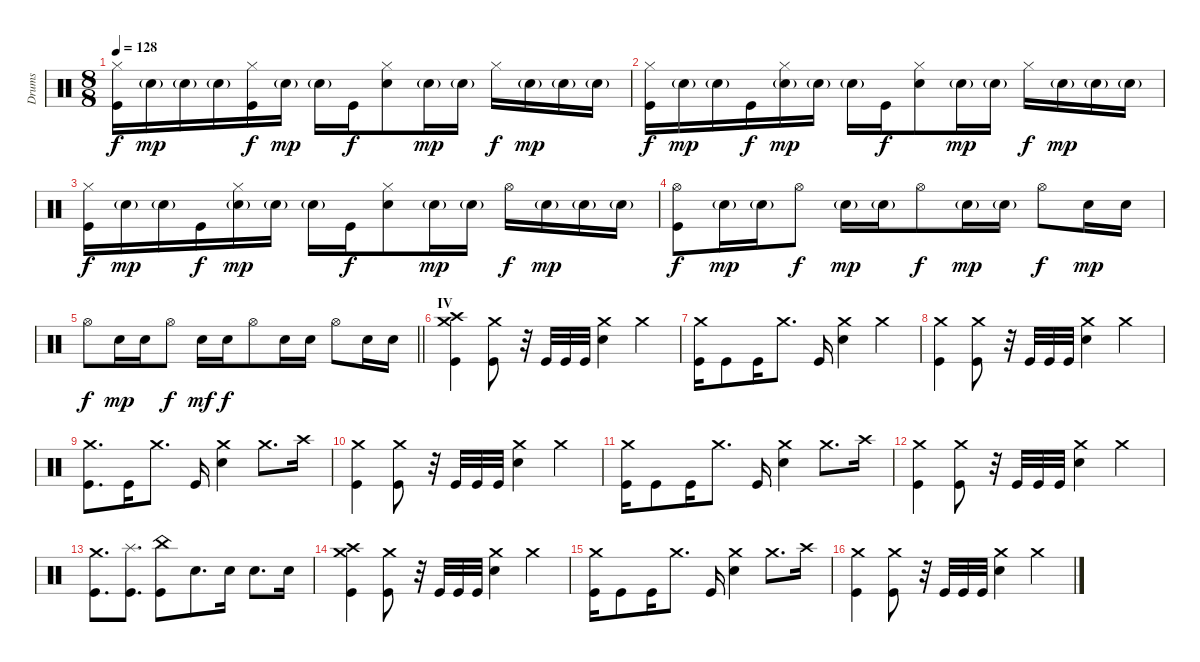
\track ("Drums" "Drums") {instrument percussion}
\staff {score}
\articulation defaults
\ts (8 8)
\tempo 128
\clef neutral
\ks c
("Kick (hit)" "Hi-Hat (closed)").16{dy f} "Electric Snare (hit)"{g}.16{dy mp} "Electric Snare (hit)"{g}.16 "Electric Snare (hit)"{g}.16 ("Kick (hit)" "Hi-Hat (closed)").16{dy f} "Electric Snare (hit)"{g}.16{dy mp} "Electric Snare (hit)"{g}.16 "Kick (hit)".16{dy f} ("Electric Snare (hit)" "Hi-Hat (closed)").8 "Electric Snare (hit)"{g}.16{dy mp} "Electric Snare (hit)"{g}.16 "Hi-Hat (closed)".16{dy f} "Electric Snare (hit)"{g}.16{dy mp} "Electric Snare (hit)"{g}.16 "Electric Snare (hit)"{g}.16 |
("Kick (hit)" "Hi-Hat (closed)").16{dy f} "Electric Snare (hit)"{g}.16{dy mp} "Electric Snare (hit)"{g}.16 "Kick (hit)".16{dy f} ("Electric Snare (hit)"{g} "Hi-Hat (closed)").16{dy mp} "Electric Snare (hit)"{g}.16 "Electric Snare (hit)"{g}.16 "Kick (hit)".16{dy f} ("Electric Snare (hit)" "Hi-Hat (closed)").8 "Electric Snare (hit)"{g}.16{dy mp} "Electric Snare (hit)"{g}.16 "Hi-Hat (closed)".16{dy f} "Electric Snare (hit)"{g}.16{dy mp} "Electric Snare (hit)"{g}.16 "Electric Snare (hit)"{g}.16 |
("Kick (hit)" "Hi-Hat (closed)").16{dy f} "Electric Snare (hit)"{g}.16{dy mp} "Electric Snare (hit)"{g}.16 "Kick (hit)".16{dy f} ("Electric Snare (hit)"{g} "Hi-Hat (closed)").16{dy mp} "Electric Snare (hit)"{g}.16 "Electric Snare (hit)"{g}.16 "Kick (hit)".16{dy f} ("Electric Snare (hit)" "Hi-Hat (closed)").8 "Electric Snare (hit)"{g}.16{dy mp} "Electric Snare (hit)"{g}.16 "Hi-Hat (open)".16{dy f} "Electric Snare (hit)"{g}.16{dy mp} "Electric Snare (hit)"{g}.16 "Electric Snare (hit)"{g}.16 |
("Kick (hit)" "Hi-Hat (open)").8{dy f} "Electric Snare (hit)"{g}.16{dy mp} "Electric Snare (hit)"{g}.16 "Hi-Hat (open)".8{dy f} "Electric Snare (hit)"{g}.16{dy mp} "Electric Snare (hit)"{g}.16 "Hi-Hat (open)".8{dy f} "Electric Snare (hit)"{g}.16{dy mp} "Electric Snare (hit)"{g}.16 "Hi-Hat (open)".8{dy f} "Electric Snare (hit)".16{dy mp} "Electric Snare (hit)".16 |
\barLineRight lightlight "Hi-Hat (open)".8{dy f} "Electric Snare (hit)".16{dy mp} "Electric Snare (hit)".16 "Hi-Hat (open)".8{dy f} "Electric Snare (hit)".16{dy mf} "Electric Snare (hit)".16{dy f} "Hi-Hat (open)".8 "Electric Snare (hit)".16 "Electric Snare (hit)".16 "Hi-Hat (open)".8 "Electric Snare (hit)".16 "Electric Snare (hit)".16
|
\section ("" "IV")
("Kick (hit)" "Crash high (hit)" "Crash medium (hit)").4 ("Kick (hit)" "Crash medium (hit)").8 r.32 "Kick (hit)".32 "Kick (hit)".32 "Kick (hit)".32 ("Electric Snare (hit)" "Crash medium (hit)").4 "Crash medium (hit)".4 |
("Kick (hit)" "Crash medium (hit)").16 "Kick (hit)".8 "Kick (hit)".16 "Crash medium (hit)".8{d} "Kick (hit)".16 ("Electric Snare (hit)" "Crash medium (hit)").4 "Crash medium (hit)".4 |
("Kick (hit)" "Crash medium (hit)").4 ("Kick (hit)" "Crash medium (hit)").8 r.32 "Kick (hit)".32 "Kick (hit)".32 "Kick (hit)".32 ("Electric Snare (hit)" "Crash medium (hit)").4 "Crash medium (hit)".4 |
("Kick (hit)" "Crash medium (hit)").8{d} "Kick (hit)".16 "Crash medium (hit)".8{d} "Kick (hit)".16 ("Electric Snare (hit)" "Crash medium (hit)").4 "Crash medium (hit)".8{d} "Crash high (hit)".16 |
("Kick (hit)" "Crash medium (hit)").4 ("Kick (hit)" "Crash medium (hit)").8 r.32 "Kick (hit)".32 "Kick (hit)".32 "Kick (hit)".32 ("Electric Snare (hit)" "Crash medium (hit)").4 "Crash medium (hit)".4 |
("Kick (hit)" "Crash medium (hit)").16 "Kick (hit)".8 "Kick (hit)".16 "Crash medium (hit)".8{d} "Kick (hit)".16 ("Electric Snare (hit)" "Crash medium (hit)").4 "Crash medium (hit)".8{d} "Crash high (hit)".16 |
("Kick (hit)" "Crash medium (hit)").4 ("Kick (hit)" "Crash medium (hit)").8 r.32 "Kick (hit)".32 "Kick (hit)".32 "Kick (hit)".32 ("Electric Snare (hit)" "Crash medium (hit)").4 "Crash medium (hit)".4 |
("Kick (hit)" "Crash medium (hit)").8{d} ("Kick (hit)" "Splash (hit)").8{d} ("Kick (hit)" "China (hit)").8 "Electric Snare (hit)".8{d} "Electric Snare (hit)".16 "Electric Snare (hit)".8{d} "Electric Snare (hit)".16 |
("Kick (hit)" "Crash high (hit)" "Crash medium (hit)").4 ("Kick (hit)" "Crash medium (hit)").8 r.32 "Kick (hit)".32 "Kick (hit)".32 "Kick (hit)".32 ("Electric Snare (hit)" "Crash medium (hit)").4 "Crash medium (hit)".4 |
("Kick (hit)" "Crash medium (hit)").16 "Kick (hit)".8 "Kick (hit)".16 "Crash medium (hit)".8{d} "Kick (hit)".16 ("Electric Snare (hit)" "Crash medium (hit)").4 "Crash medium (hit)".8{d} "Crash high (hit)".16 |
("Kick (hit)" "Crash medium (hit)").4 ("Kick (hit)" "Crash medium (hit)").8 r.32 "Kick (hit)".32 "Kick (hit)".32 "Kick (hit)".32 ("Electric Snare (hit)" "Crash medium (hit)").4 "Crash medium (hit)".4
